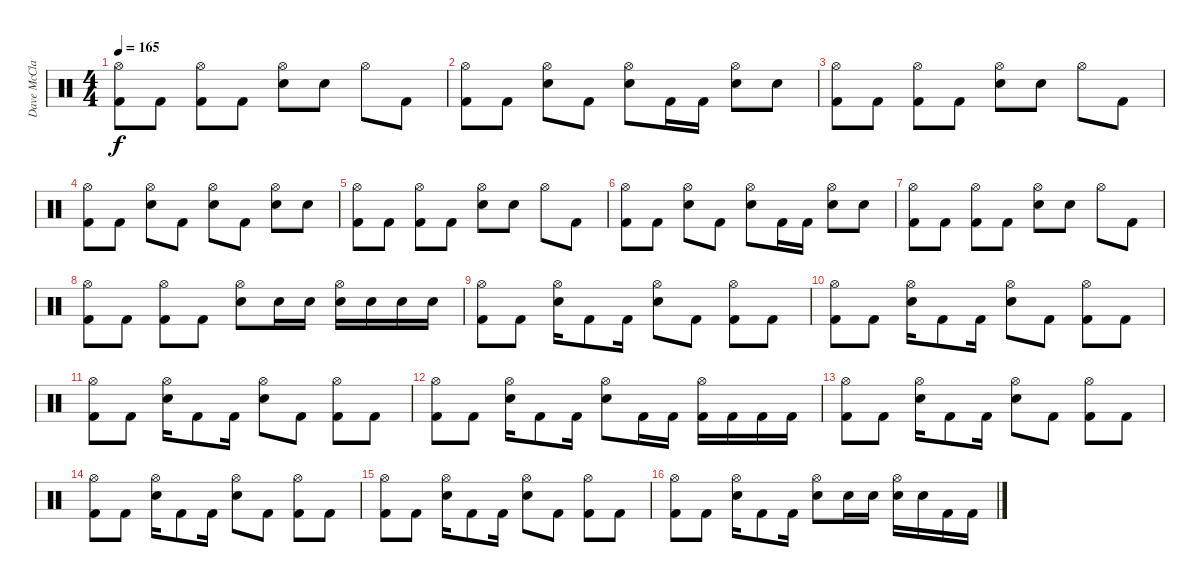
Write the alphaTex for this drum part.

\track ("Dave McClain" "Dave McCla") {instrument percussion}
\staff {score}
\articulation defaults
\ts (4 4)
\tempo 165
\clef neutral
\ks c
("Hi-Hat (open)" "Kick (hit) 2").8{dy f} "Kick (hit) 2".8 ("Hi-Hat (open)" "Kick (hit) 2").8 "Kick (hit) 2".8 ("Hi-Hat (open)" "Electric Snare (hit)").8 "Electric Snare (hit)".8 "Hi-Hat (open)".8 "Kick (hit) 2".8 |
("Hi-Hat (open)" "Kick (hit) 2").8 "Kick (hit) 2".8 ("Hi-Hat (open)" "Electric Snare (hit)").8 "Kick (hit) 2".8 ("Hi-Hat (open)" "Electric Snare (hit)").8 "Kick (hit) 2".16 "Kick (hit) 2".16 ("Hi-Hat (open)" "Electric Snare (hit)").8 "Electric Snare (hit)".8 |
("Hi-Hat (open)" "Kick (hit) 2").8 "Kick (hit) 2".8 ("Hi-Hat (open)" "Kick (hit) 2").8 "Kick (hit) 2".8 ("Hi-Hat (open)" "Electric Snare (hit)").8 "Electric Snare (hit)".8 "Hi-Hat (open)".8 "Kick (hit) 2".8 |
("Hi-Hat (open)" "Kick (hit) 2").8 "Kick (hit) 2".8 ("Hi-Hat (open)" "Electric Snare (hit)").8 "Kick (hit) 2".8 ("Hi-Hat (open)" "Electric Snare (hit)").8 "Kick (hit) 2".8 ("Hi-Hat (open)" "Electric Snare (hit)").8 "Electric Snare (hit)".8 |
("Hi-Hat (open)" "Kick (hit) 2").8 "Kick (hit) 2".8 ("Hi-Hat (open)" "Kick (hit) 2").8 "Kick (hit) 2".8 ("Hi-Hat (open)" "Electric Snare (hit)").8 "Electric Snare (hit)".8 "Hi-Hat (open)".8 "Kick (hit) 2".8 |
("Hi-Hat (open)" "Kick (hit) 2").8 "Kick (hit) 2".8 ("Hi-Hat (open)" "Electric Snare (hit)").8 "Kick (hit) 2".8 ("Hi-Hat (open)" "Electric Snare (hit)").8 "Kick (hit) 2".16 "Kick (hit) 2".16 ("Hi-Hat (open)" "Electric Snare (hit)").8 "Electric Snare (hit)".8 |
("Hi-Hat (open)" "Kick (hit) 2").8 "Kick (hit) 2".8 ("Hi-Hat (open)" "Kick (hit) 2").8 "Kick (hit) 2".8 ("Hi-Hat (open)" "Electric Snare (hit)").8 "Electric Snare (hit)".8 "Hi-Hat (open)".8 "Kick (hit) 2".8 |
("Hi-Hat (open)" "Kick (hit) 2").8 "Kick (hit) 2".8 ("Hi-Hat (open)" "Kick (hit) 2").8 "Kick (hit) 2".8 ("Hi-Hat (open)" "Electric Snare (hit)").8 "Electric Snare (hit)".16 "Electric Snare (hit)".16 ("Hi-Hat (open)" "Electric Snare (hit)").16 "Electric Snare (hit)".16 "Electric Snare (hit)".16 "Electric Snare (hit)".16 |
("Hi-Hat (open)" "Kick (hit) 2").8 "Kick (hit) 2".8 ("Hi-Hat (open)" "Electric Snare (hit)").16 "Kick (hit) 2".8 "Kick (hit) 2".16 ("Hi-Hat (open)" "Electric Snare (hit)").8 "Kick (hit) 2".8 ("Hi-Hat (open)" "Kick (hit) 2").8 "Kick (hit) 2".8 |
("Hi-Hat (open)" "Kick (hit) 2").8 "Kick (hit) 2".8 ("Hi-Hat (open)" "Electric Snare (hit)").16 "Kick (hit) 2".8 "Kick (hit) 2".16 ("Hi-Hat (open)" "Electric Snare (hit)").8 "Kick (hit) 2".8 ("Hi-Hat (open)" "Kick (hit) 2").8 "Kick (hit) 2".8 |
("Hi-Hat (open)" "Kick (hit) 2").8 "Kick (hit) 2".8 ("Hi-Hat (open)" "Electric Snare (hit)").16 "Kick (hit) 2".8 "Kick (hit) 2".16 ("Hi-Hat (open)" "Electric Snare (hit)").8 "Kick (hit) 2".8 ("Hi-Hat (open)" "Kick (hit) 2").8 "Kick (hit) 2".8 |
("Hi-Hat (open)" "Kick (hit) 2").8 "Kick (hit) 2".8 ("Hi-Hat (open)" "Electric Snare (hit)").16 "Kick (hit) 2".8 "Kick (hit) 2".16 ("Hi-Hat (open)" "Electric Snare (hit)").8 "Kick (hit) 2".16 "Kick (hit) 2".16 ("Hi-Hat (open)" "Kick (hit) 2").16 "Kick (hit) 2".16 "Kick (hit) 2".16 "Kick (hit) 2".16 |
("Hi-Hat (open)" "Kick (hit) 2").8 "Kick (hit) 2".8 ("Hi-Hat (open)" "Electric Snare (hit)").16 "Kick (hit) 2".8 "Kick (hit) 2".16 ("Hi-Hat (open)" "Electric Snare (hit)").8 "Kick (hit) 2".8 ("Hi-Hat (open)" "Kick (hit) 2").8 "Kick (hit) 2".8 |
("Hi-Hat (open)" "Kick (hit) 2").8 "Kick (hit) 2".8 ("Hi-Hat (open)" "Electric Snare (hit)").16 "Kick (hit) 2".8 "Kick (hit) 2".16 ("Hi-Hat (open)" "Electric Snare (hit)").8 "Kick (hit) 2".8 ("Hi-Hat (open)" "Kick (hit) 2").8 "Kick (hit) 2".8 |
("Hi-Hat (open)" "Kick (hit) 2").8 "Kick (hit) 2".8 ("Hi-Hat (open)" "Electric Snare (hit)").16 "Kick (hit) 2".8 "Kick (hit) 2".16 ("Hi-Hat (open)" "Electric Snare (hit)").8 "Kick (hit) 2".8 ("Hi-Hat (open)" "Kick (hit) 2").8 "Kick (hit) 2".8 |
("Hi-Hat (open)" "Kick (hit) 2").8 "Kick (hit) 2".8 ("Hi-Hat (open)" "Electric Snare (hit)").16 "Kick (hit) 2".8 "Kick (hit) 2".16 ("Hi-Hat (open)" "Electric Snare (hit)").8 "Electric Snare (hit)".16 "Electric Snare (hit)".16 ("Hi-Hat (open)" "Electric Snare (hit)").16 "Electric Snare (hit)".16 "Kick (hit) 2".16 "Kick (hit) 2".16
